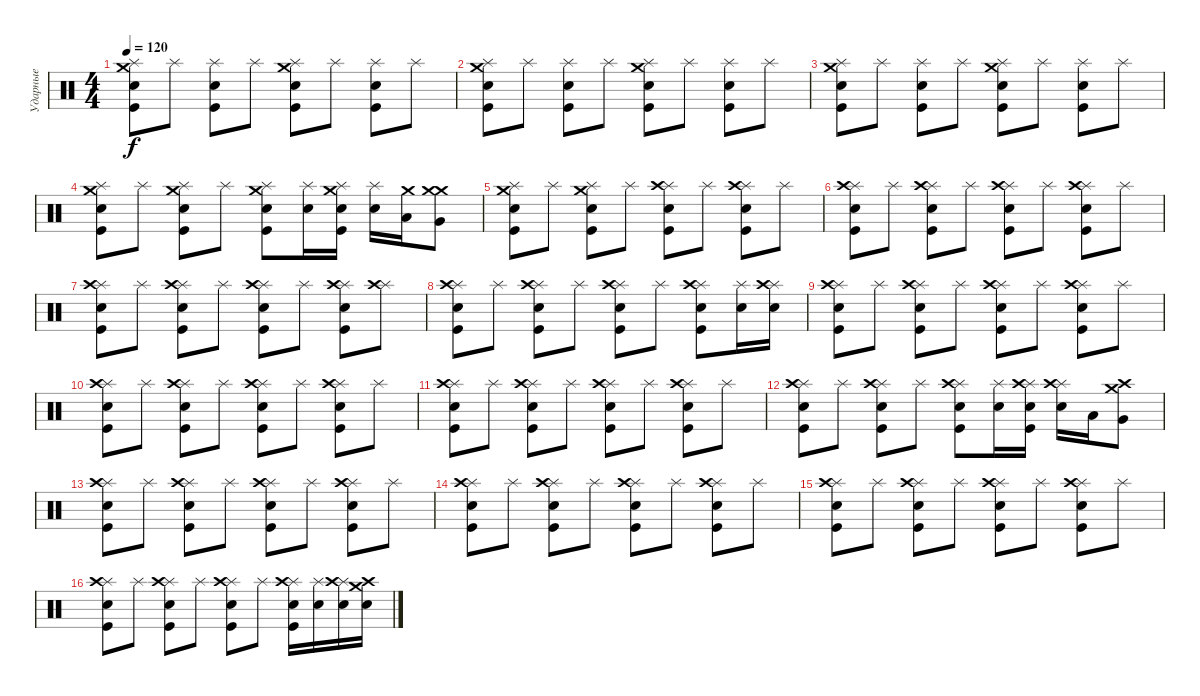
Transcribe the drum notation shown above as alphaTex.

\track ("Ударные" "Ударные") {instrument percussion}
\staff {score}
\articulation defaults
\ts (4 4)
\tempo 120
\clef neutral
\ks c
("Splash (hit)" "Crash medium (hit)" "Electric Snare (hit)" "Kick (hit)").8{dy f} "Splash (hit)".8 ("Splash (hit)" "Electric Snare (hit)" "Kick (hit)").8 "Splash (hit)".8 ("Splash (hit)" "Crash medium (hit)" "Electric Snare (hit)" "Kick (hit)").8 "Splash (hit)".8 ("Splash (hit)" "Electric Snare (hit)" "Kick (hit)").8 "Splash (hit)".8 |
("Splash (hit)" "Crash medium (hit)" "Electric Snare (hit)" "Kick (hit)").8 "Splash (hit)".8 ("Splash (hit)" "Electric Snare (hit)" "Kick (hit)").8 "Splash (hit)".8 ("Splash (hit)" "Crash medium (hit)" "Electric Snare (hit)" "Kick (hit)").8 "Splash (hit)".8 ("Splash (hit)" "Electric Snare (hit)" "Kick (hit)").8 "Splash (hit)".8 |
("Splash (hit)" "Crash medium (hit)" "Electric Snare (hit)" "Kick (hit)").8 "Splash (hit)".8 ("Splash (hit)" "Electric Snare (hit)" "Kick (hit)").8 "Splash (hit)".8 ("Splash (hit)" "Crash medium (hit)" "Electric Snare (hit)" "Kick (hit)").8 "Splash (hit)".8 ("Splash (hit)" "Electric Snare (hit)" "Kick (hit)").8 "Splash (hit)".8 |
("Splash (hit)" "Crash medium (hit)" "Electric Snare (hit)" "Kick (hit)").8 "Splash (hit)".8 ("Splash (hit)" "Crash medium (hit)" "Electric Snare (hit)" "Kick (hit)").8 "Splash (hit)".8 ("Splash (hit)" "Crash medium (hit)" "Electric Snare (hit)" "Kick (hit)").8 ("Splash (hit)" "Snare (hit) 2").16 ("Splash (hit)" "Crash medium (hit)" "Electric Snare (hit)" "Kick (hit)").16 ("Splash (hit)" "Electric Snare (hit)").16 ("Crash medium (hit)" "Low Floor Tom (hit)").16 ("Crash medium (hit)" "Crash medium (hit)" "Very Low Tom (hit)").8 |
("Splash (hit)" "Crash medium (hit)" "Electric Snare (hit)" "Kick (hit)").8 "Splash (hit)".8 ("Splash (hit)" "Crash medium (hit)" "Electric Snare (hit)" "Kick (hit)").8 "Splash (hit)".8 ("Splash (hit)" "Crash high (hit)" "Electric Snare (hit)" "Kick (hit)").8 "Splash (hit)".8 ("Splash (hit)" "Crash high (hit)" "Electric Snare (hit)" "Kick (hit)").8 "Splash (hit)".8 |
("Splash (hit)" "Crash high (hit)" "Electric Snare (hit)" "Kick (hit)").8 "Splash (hit)".8 ("Splash (hit)" "Crash high (hit)" "Electric Snare (hit)" "Kick (hit)").8 "Splash (hit)".8 ("Splash (hit)" "Crash high (hit)" "Electric Snare (hit)" "Kick (hit)").8 "Splash (hit)".8 ("Splash (hit)" "Crash high (hit)" "Electric Snare (hit)" "Kick (hit)").8 "Splash (hit)".8 |
("Splash (hit)" "Crash high (hit)" "Electric Snare (hit)" "Kick (hit)").8 "Splash (hit)".8 ("Splash (hit)" "Crash high (hit)" "Electric Snare (hit)" "Kick (hit)").8 "Splash (hit)".8 ("Splash (hit)" "Crash high (hit)" "Electric Snare (hit)" "Kick (hit)").8 "Splash (hit)".8 ("Splash (hit)" "Crash high (hit)" "Electric Snare (hit)" "Kick (hit)").8 ("Splash (hit)" "Crash high (hit)").8 |
("Splash (hit)" "Crash high (hit)" "Electric Snare (hit)" "Kick (hit)").8 "Splash (hit)".8 ("Splash (hit)" "Crash high (hit)" "Electric Snare (hit)" "Kick (hit)").8 "Splash (hit)".8 ("Splash (hit)" "Crash high (hit)" "Electric Snare (hit)" "Kick (hit)").8 "Splash (hit)".8 ("Splash (hit)" "Crash high (hit)" "Electric Snare (hit)" "Kick (hit)").8 ("Splash (hit)" "Snare (hit) 2").16 ("Splash (hit)" "Crash high (hit)" "Snare (hit) 2").16 |
("Splash (hit)" "Crash high (hit)" "Electric Snare (hit)" "Kick (hit)").8 "Splash (hit)".8 ("Splash (hit)" "Crash high (hit)" "Electric Snare (hit)" "Kick (hit)").8 "Splash (hit)".8 ("Splash (hit)" "Crash high (hit)" "Electric Snare (hit)" "Kick (hit)").8 "Splash (hit)".8 ("Splash (hit)" "Crash high (hit)" "Electric Snare (hit)" "Kick (hit)").8 "Splash (hit)".8 |
("Splash (hit)" "Crash high (hit)" "Electric Snare (hit)" "Kick (hit)").8 "Splash (hit)".8 ("Splash (hit)" "Crash high (hit)" "Electric Snare (hit)" "Kick (hit)").8 "Splash (hit)".8 ("Splash (hit)" "Crash high (hit)" "Electric Snare (hit)" "Kick (hit)").8 "Splash (hit)".8 ("Splash (hit)" "Crash high (hit)" "Electric Snare (hit)" "Kick (hit)").8 "Splash (hit)".8 |
("Splash (hit)" "Crash high (hit)" "Electric Snare (hit)" "Kick (hit)").8 "Splash (hit)".8 ("Splash (hit)" "Crash high (hit)" "Electric Snare (hit)" "Kick (hit)").8 "Splash (hit)".8 ("Splash (hit)" "Crash high (hit)" "Electric Snare (hit)" "Kick (hit)").8 "Splash (hit)".8 ("Splash (hit)" "Crash high (hit)" "Electric Snare (hit)" "Kick (hit)").8 "Splash (hit)".8 |
("Splash (hit)" "Crash high (hit)" "Electric Snare (hit)" "Kick (hit)").8 "Splash (hit)".8 ("Splash (hit)" "Crash high (hit)" "Electric Snare (hit)" "Kick (hit)").8 "Splash (hit)".8 ("Splash (hit)" "Crash high (hit)" "Electric Snare (hit)" "Kick (hit)").8 ("Splash (hit)" "Snare (hit) 2").16 ("Splash (hit)" "Crash high (hit)" "Electric Snare (hit)" "Kick (hit)").16 ("Splash (hit)" "Crash high (hit)" "Electric Snare (hit)").16 "Low Floor Tom (hit)".16 ("Crash medium (hit)" "Crash high (hit)" "Very Low Tom (hit)").8 |
("Splash (hit)" "Crash high (hit)" "Electric Snare (hit)" "Kick (hit)").8 "Splash (hit)".8 ("Splash (hit)" "Crash high (hit)" "Electric Snare (hit)" "Kick (hit)").8 "Splash (hit)".8 ("Splash (hit)" "Crash high (hit)" "Electric Snare (hit)" "Kick (hit)").8 "Splash (hit)".8 ("Splash (hit)" "Crash high (hit)" "Electric Snare (hit)" "Kick (hit)").8 "Splash (hit)".8 |
("Splash (hit)" "Crash high (hit)" "Electric Snare (hit)" "Kick (hit)").8 "Splash (hit)".8 ("Splash (hit)" "Crash high (hit)" "Electric Snare (hit)" "Kick (hit)").8 "Splash (hit)".8 ("Splash (hit)" "Crash high (hit)" "Electric Snare (hit)" "Kick (hit)").8 "Splash (hit)".8 ("Splash (hit)" "Crash high (hit)" "Electric Snare (hit)" "Kick (hit)").8 "Splash (hit)".8 |
("Splash (hit)" "Crash high (hit)" "Electric Snare (hit)" "Kick (hit)").8 "Splash (hit)".8 ("Splash (hit)" "Crash high (hit)" "Electric Snare (hit)" "Kick (hit)").8 "Splash (hit)".8 ("Splash (hit)" "Crash high (hit)" "Electric Snare (hit)" "Kick (hit)").8 "Splash (hit)".8 ("Splash (hit)" "Crash high (hit)" "Electric Snare (hit)" "Kick (hit)").8 "Splash (hit)".8 |
("Splash (hit)" "Crash high (hit)" "Electric Snare (hit)" "Kick (hit)").8 "Splash (hit)".8 ("Splash (hit)" "Crash high (hit)" "Electric Snare (hit)" "Kick (hit)").8 "Splash (hit)".8 ("Splash (hit)" "Crash high (hit)" "Electric Snare (hit)" "Kick (hit)").8 "Splash (hit)".8 ("Splash (hit)" "Crash high (hit)" "Snare (hit) 2" "Kick (hit)").16 ("Splash (hit)" "Snare (hit) 2").16 ("Splash (hit)" "Crash high (hit)" "Snare (hit) 2").16 ("Crash medium (hit)" "Crash high (hit)" "Snare (hit) 2").16
